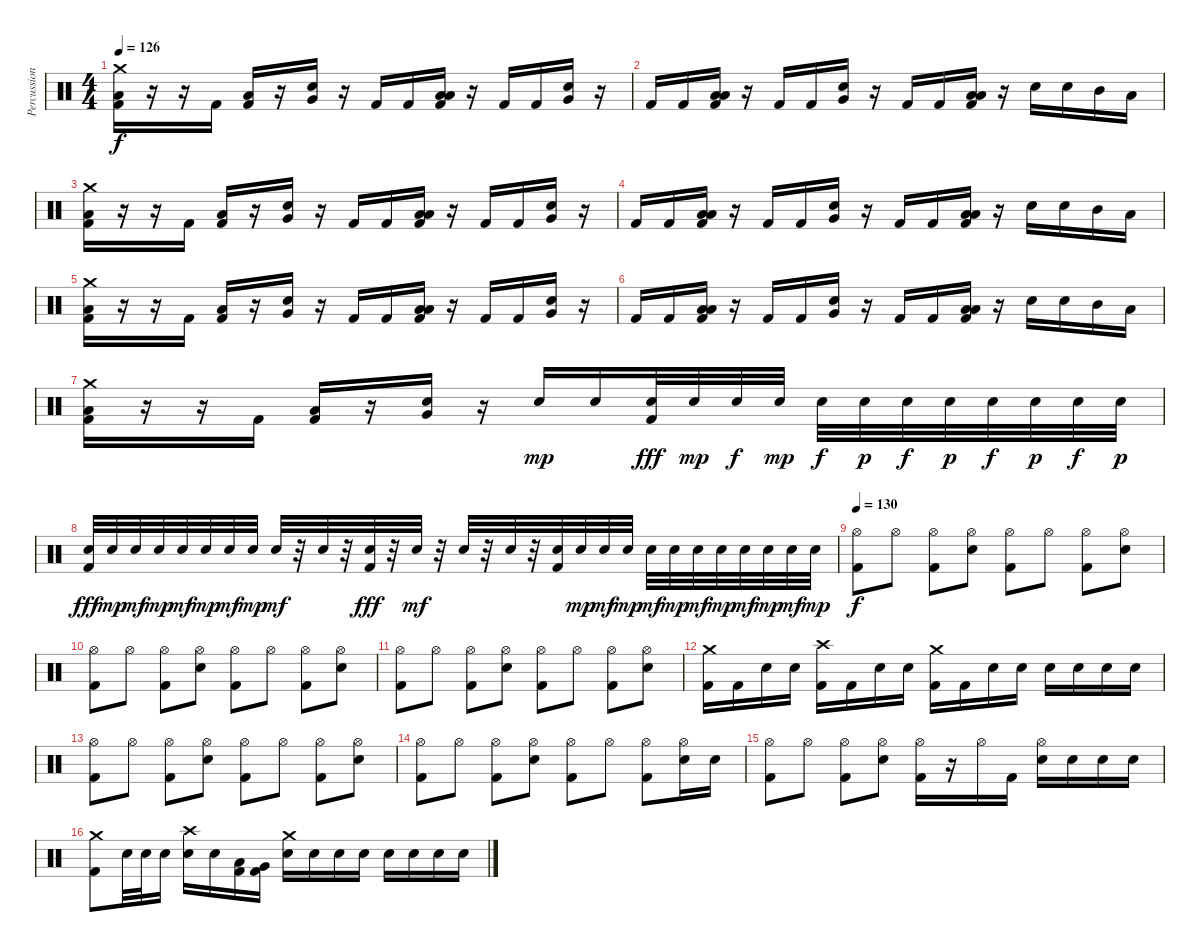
\track ("Percussion" "Percussion") {instrument percussion}
\staff {score}
\articulation defaults
\ts (4 4)
\tempo 126
\clef neutral
\ks c
("Kick (hit) 2" "Low Floor Tom (hit)" "Crash medium (hit)").16{dy f} r.16 r.16 "Kick (hit) 2".16 ("Kick (hit) 2" "Low Floor Tom (hit)").16 r.16 ("Electric Snare (hit)" "Very Low Tom (hit)").16 r.16 "Kick (hit) 2".16 "Kick (hit) 2".16 ("Kick (hit) 2" "Low Floor Tom (hit)" "Low Tom (hit)").16 r.16 "Kick (hit) 2".16 "Kick (hit) 2".16 ("Electric Snare (hit)" "Very Low Tom (hit)").16 r.16 |
"Kick (hit) 2".16 "Kick (hit) 2".16 ("Kick (hit) 2" "Low Floor Tom (hit)" "Low Tom (hit)").16 r.16 "Kick (hit) 2".16 "Kick (hit) 2".16 ("Electric Snare (hit)" "Very Low Tom (hit)").16 r.16 "Kick (hit) 2".16 "Kick (hit) 2".16 ("Kick (hit) 2" "Low Floor Tom (hit)" "Low Tom (hit)").16 r.16 "Electric Snare (hit)".16 "Electric Snare (hit)".16 "Mid Tom (hit)".16 "Low Tom (hit)".16 |
("Kick (hit) 2" "Low Floor Tom (hit)" "Crash medium (hit)").16 r.16 r.16 "Kick (hit) 2".16 ("Kick (hit) 2" "Low Floor Tom (hit)").16 r.16 ("Electric Snare (hit)" "Very Low Tom (hit)").16 r.16 "Kick (hit) 2".16 "Kick (hit) 2".16 ("Kick (hit) 2" "Low Floor Tom (hit)" "Low Tom (hit)").16 r.16 "Kick (hit) 2".16 "Kick (hit) 2".16 ("Electric Snare (hit)" "Very Low Tom (hit)").16 r.16 |
"Kick (hit) 2".16 "Kick (hit) 2".16 ("Kick (hit) 2" "Low Floor Tom (hit)" "Low Tom (hit)").16 r.16 "Kick (hit) 2".16 "Kick (hit) 2".16 ("Electric Snare (hit)" "Very Low Tom (hit)").16 r.16 "Kick (hit) 2".16 "Kick (hit) 2".16 ("Kick (hit) 2" "Low Floor Tom (hit)" "Low Tom (hit)").16 r.16 "Electric Snare (hit)".16 "Electric Snare (hit)".16 "Mid Tom (hit)".16 "Low Tom (hit)".16 |
("Kick (hit) 2" "Low Floor Tom (hit)" "Crash medium (hit)").16 r.16 r.16 "Kick (hit) 2".16 ("Kick (hit) 2" "Low Floor Tom (hit)").16 r.16 ("Electric Snare (hit)" "Very Low Tom (hit)").16 r.16 "Kick (hit) 2".16 "Kick (hit) 2".16 ("Kick (hit) 2" "Low Floor Tom (hit)" "Low Tom (hit)").16 r.16 "Kick (hit) 2".16 "Kick (hit) 2".16 ("Electric Snare (hit)" "Very Low Tom (hit)").16 r.16 |
"Kick (hit) 2".16 "Kick (hit) 2".16 ("Kick (hit) 2" "Low Floor Tom (hit)" "Low Tom (hit)").16 r.16 "Kick (hit) 2".16 "Kick (hit) 2".16 ("Electric Snare (hit)" "Very Low Tom (hit)").16 r.16 "Kick (hit) 2".16 "Kick (hit) 2".16 ("Kick (hit) 2" "Low Floor Tom (hit)" "Low Tom (hit)").16 r.16 "Electric Snare (hit)".16 "Electric Snare (hit)".16 "Mid Tom (hit)".16 "Low Tom (hit)".16 |
("Kick (hit) 2" "Low Floor Tom (hit)" "Crash medium (hit)").16 r.16 r.16 "Kick (hit) 2".16 ("Kick (hit) 2" "Low Floor Tom (hit)").16 r.16 ("Electric Snare (hit)" "Very Low Tom (hit)").16 r.16 "Electric Snare (hit)".16{dy mp} "Electric Snare (hit)".16 ("Kick (hit) 2" "Electric Snare (hit)").32{dy fff} "Electric Snare (hit)".32{dy mp} "Electric Snare (hit)".32{dy f} "Electric Snare (hit)".32{dy mp} "Electric Snare (hit)".32{dy f} "Electric Snare (hit)".32{dy p} "Electric Snare (hit)".32{dy f} "Electric Snare (hit)".32{dy p} "Electric Snare (hit)".32{dy f} "Electric Snare (hit)".32{dy p} "Electric Snare (hit)".32{dy f} "Electric Snare (hit)".32{dy p} |
("Kick (hit) 2" "Electric Snare (hit)").32{dy fff} "Electric Snare (hit)".32{dy mp} "Electric Snare (hit)".32{dy mf} "Electric Snare (hit)".32{dy mp} "Electric Snare (hit)".32{dy mf} "Electric Snare (hit)".32{dy mp} "Electric Snare (hit)".32{dy mf} "Electric Snare (hit)".32{dy mp} "Electric Snare (hit)".32{dy mf} r.32 "Electric Snare (hit)".32 r.32 ("Kick (hit) 2" "Electric Snare (hit)").32{dy fff} r.32 "Electric Snare (hit)".32{dy mf} r.32 "Electric Snare (hit)".32 r.32 "Electric Snare (hit)".32 r.32 ("Kick (hit) 2" "Electric Snare (hit)").32 "Electric Snare (hit)".32{dy mp} "Electric Snare (hit)".32{dy mf} "Electric Snare (hit)".32{dy mp} "Electric Snare (hit)".32{dy mf} "Electric Snare (hit)".32{dy mp} "Electric Snare (hit)".32{dy mf} "Electric Snare (hit)".32{dy mp} "Electric Snare (hit)".32{dy mf} "Electric Snare (hit)".32{dy mp} "Electric Snare (hit)".32{dy mf} "Electric Snare (hit)".32{dy mp} |
\tempo 130
("Kick (hit) 2" "Hi-Hat (open)").8{dy f} "Hi-Hat (open)".8 ("Kick (hit) 2" "Hi-Hat (open)").8 ("Electric Snare (hit)" "Hi-Hat (open)").8 ("Kick (hit) 2" "Hi-Hat (open)").8 "Hi-Hat (open)".8 ("Kick (hit) 2" "Hi-Hat (open)").8 ("Electric Snare (hit)" "Hi-Hat (open)").8 |
("Kick (hit) 2" "Hi-Hat (open)").8 "Hi-Hat (open)".8 ("Kick (hit) 2" "Hi-Hat (open)").8 ("Electric Snare (hit)" "Hi-Hat (open)").8 ("Kick (hit) 2" "Hi-Hat (open)").8 "Hi-Hat (open)".8 ("Kick (hit) 2" "Hi-Hat (open)").8 ("Electric Snare (hit)" "Hi-Hat (open)").8 |
("Kick (hit) 2" "Hi-Hat (open)").8 "Hi-Hat (open)".8 ("Kick (hit) 2" "Hi-Hat (open)").8 ("Electric Snare (hit)" "Hi-Hat (open)").8 ("Kick (hit) 2" "Hi-Hat (open)").8 "Hi-Hat (open)".8 ("Kick (hit) 2" "Hi-Hat (open)").8 ("Electric Snare (hit)" "Hi-Hat (open)").8 |
("Kick (hit) 2" "Crash medium (hit)").16 "Kick (hit) 2".16 "Electric Snare (hit)".16 "Electric Snare (hit)".16 ("Kick (hit) 2" "Crash high (hit)").16 "Kick (hit) 2".16 "Electric Snare (hit)".16 "Electric Snare (hit)".16 ("Kick (hit) 2" "Crash medium (hit)").16 "Kick (hit) 2".16 "Electric Snare (hit)".16 "Electric Snare (hit)".16 "Electric Snare (hit)".16 "Electric Snare (hit)".16 "Electric Snare (hit)".16 "Electric Snare (hit)".16 |
("Kick (hit) 2" "Hi-Hat (open)").8 "Hi-Hat (open)".8 ("Kick (hit) 2" "Hi-Hat (open)").8 ("Electric Snare (hit)" "Hi-Hat (open)").8 ("Kick (hit) 2" "Hi-Hat (open)").8 "Hi-Hat (open)".8 ("Kick (hit) 2" "Hi-Hat (open)").8 ("Electric Snare (hit)" "Hi-Hat (open)").8 |
("Kick (hit) 2" "Hi-Hat (open)").8 "Hi-Hat (open)".8 ("Kick (hit) 2" "Hi-Hat (open)").8 ("Electric Snare (hit)" "Hi-Hat (open)").8 ("Kick (hit) 2" "Hi-Hat (open)").8 "Hi-Hat (open)".8 ("Kick (hit) 2" "Hi-Hat (open)").8 ("Electric Snare (hit)" "Hi-Hat (open)").16 "Electric Snare (hit)".16 |
("Kick (hit) 2" "Hi-Hat (open)").8 "Hi-Hat (open)".8 ("Kick (hit) 2" "Hi-Hat (open)").8 ("Electric Snare (hit)" "Hi-Hat (open)").8 ("Kick (hit) 2" "Hi-Hat (open)").16 r.16 "Hi-Hat (open)".16 "Kick (hit) 2".16 ("Electric Snare (hit)" "Hi-Hat (open)").16 "Electric Snare (hit)".16 "Electric Snare (hit)".16 "Electric Snare (hit)".16 |
("Kick (hit) 2" "Crash medium (hit)").8 "Electric Snare (hit)".32 "Electric Snare (hit)".32 "Electric Snare (hit)".16 ("Electric Snare (hit)" "Crash high (hit)").16 "Electric Snare (hit)".16 ("Kick (hit) 2" "Low Tom (hit)").16 ("Kick (hit) 2" "Very Low Tom (hit)").16 ("Electric Snare (hit)" "Crash medium (hit)").16 "Electric Snare (hit)".16 "Electric Snare (hit)".16 "Electric Snare (hit)".16 "Electric Snare (hit)".16 "Electric Snare (hit)".16 "Electric Snare (hit)".16 "Electric Snare (hit)".16
